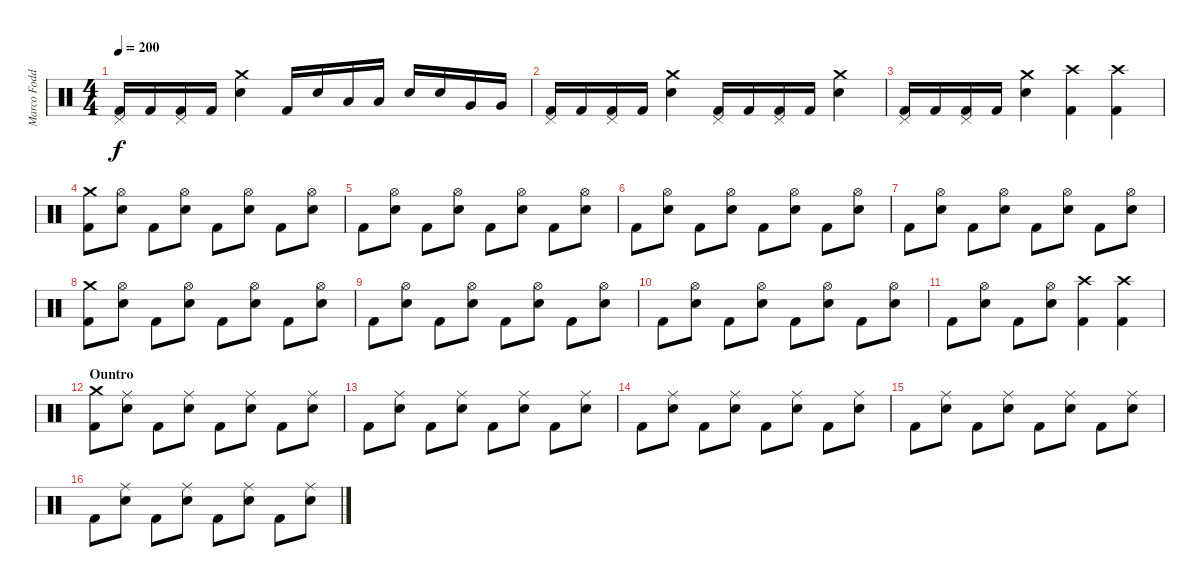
\track ("Marco Foddis " "Marco Fodd") {instrument percussion}
\staff {score}
\articulation defaults
\ts (4 4)
\tempo 200
\clef neutral
\ks c
("Pedal Hi-Hat (hit)" "Kick (hit) 2").16{dy f} "Kick (hit) 2".16 ("Pedal Hi-Hat (hit)" "Kick (hit) 2").16 "Kick (hit) 2".16 ("Crash medium (hit)" "Electric Snare (hit)").4 "Kick (hit) 2".16 "Electric Snare (hit)".16 "Low Tom (hit)".16 "Low Tom (hit)".16 "Electric Snare (hit)".16 "Electric Snare (hit)".16 "Very Low Tom (hit)".16 "Very Low Tom (hit)".16 |
("Pedal Hi-Hat (hit)" "Kick (hit) 2").16 "Kick (hit) 2".16 ("Pedal Hi-Hat (hit)" "Kick (hit) 2").16 "Kick (hit) 2".16 ("Crash medium (hit)" "Electric Snare (hit)").4 ("Pedal Hi-Hat (hit)" "Kick (hit) 2").16 "Kick (hit) 2".16 ("Pedal Hi-Hat (hit)" "Kick (hit) 2").16 "Kick (hit) 2".16 ("Crash medium (hit)" "Electric Snare (hit)").4 |
("Pedal Hi-Hat (hit)" "Kick (hit) 2").16 "Kick (hit) 2".16 ("Pedal Hi-Hat (hit)" "Kick (hit) 2").16 "Kick (hit) 2".16 ("Crash medium (hit)" "Electric Snare (hit)").4 ("Crash high (hit)" "Kick (hit) 2").4 ("Crash high (hit)" "Kick (hit) 2").4 |
("Crash medium (hit)" "Kick (hit) 2").8 ("Hi-Hat (open)" "Electric Snare (hit)").8 "Kick (hit) 2".8 ("Hi-Hat (open)" "Electric Snare (hit)").8 "Kick (hit) 2".8 ("Hi-Hat (open)" "Electric Snare (hit)").8 "Kick (hit) 2".8 ("Hi-Hat (open)" "Electric Snare (hit)").8 |
"Kick (hit) 2".8 ("Hi-Hat (open)" "Electric Snare (hit)").8 "Kick (hit) 2".8 ("Hi-Hat (open)" "Electric Snare (hit)").8 "Kick (hit) 2".8 ("Hi-Hat (open)" "Electric Snare (hit)").8 "Kick (hit) 2".8 ("Hi-Hat (open)" "Electric Snare (hit)").8 |
"Kick (hit) 2".8 ("Hi-Hat (open)" "Electric Snare (hit)").8 "Kick (hit) 2".8 ("Hi-Hat (open)" "Electric Snare (hit)").8 "Kick (hit) 2".8 ("Hi-Hat (open)" "Electric Snare (hit)").8 "Kick (hit) 2".8 ("Hi-Hat (open)" "Electric Snare (hit)").8 |
"Kick (hit) 2".8 ("Hi-Hat (open)" "Electric Snare (hit)").8 "Kick (hit) 2".8 ("Hi-Hat (open)" "Electric Snare (hit)").8 "Kick (hit) 2".8 ("Hi-Hat (open)" "Electric Snare (hit)").8 "Kick (hit) 2".8 ("Hi-Hat (open)" "Electric Snare (hit)").8 |
("Crash medium (hit)" "Kick (hit) 2").8 ("Hi-Hat (open)" "Electric Snare (hit)").8 "Kick (hit) 2".8 ("Hi-Hat (open)" "Electric Snare (hit)").8 "Kick (hit) 2".8 ("Hi-Hat (open)" "Electric Snare (hit)").8 "Kick (hit) 2".8 ("Hi-Hat (open)" "Electric Snare (hit)").8 |
"Kick (hit) 2".8 ("Hi-Hat (open)" "Electric Snare (hit)").8 "Kick (hit) 2".8 ("Hi-Hat (open)" "Electric Snare (hit)").8 "Kick (hit) 2".8 ("Hi-Hat (open)" "Electric Snare (hit)").8 "Kick (hit) 2".8 ("Hi-Hat (open)" "Electric Snare (hit)").8 |
"Kick (hit) 2".8 ("Hi-Hat (open)" "Electric Snare (hit)").8 "Kick (hit) 2".8 ("Hi-Hat (open)" "Electric Snare (hit)").8 "Kick (hit) 2".8 ("Hi-Hat (open)" "Electric Snare (hit)").8 "Kick (hit) 2".8 ("Hi-Hat (open)" "Electric Snare (hit)").8 |
"Kick (hit) 2".8 ("Hi-Hat (open)" "Electric Snare (hit)").8 "Kick (hit) 2".8 ("Hi-Hat (open)" "Electric Snare (hit)").8 ("Crash high (hit)" "Kick (hit) 2").4 ("Crash high (hit)" "Kick (hit) 2").4 |
\section ("" "Ountro")
("Crash medium (hit)" "Kick (hit) 2").8 ("Ride (middle)" "Electric Snare (hit)").8 "Kick (hit) 2".8 ("Ride (middle)" "Electric Snare (hit)").8 "Kick (hit) 2".8 ("Ride (middle)" "Electric Snare (hit)").8 "Kick (hit) 2".8 ("Ride (middle)" "Electric Snare (hit)").8 |
"Kick (hit) 2".8 ("Ride (middle)" "Electric Snare (hit)").8 "Kick (hit) 2".8 ("Ride (middle)" "Electric Snare (hit)").8 "Kick (hit) 2".8 ("Ride (middle)" "Electric Snare (hit)").8 "Kick (hit) 2".8 ("Ride (middle)" "Electric Snare (hit)").8 |
"Kick (hit) 2".8 ("Ride (middle)" "Electric Snare (hit)").8 "Kick (hit) 2".8 ("Ride (middle)" "Electric Snare (hit)").8 "Kick (hit) 2".8 ("Ride (middle)" "Electric Snare (hit)").8 "Kick (hit) 2".8 ("Ride (middle)" "Electric Snare (hit)").8 |
"Kick (hit) 2".8 ("Ride (middle)" "Electric Snare (hit)").8 "Kick (hit) 2".8 ("Ride (middle)" "Electric Snare (hit)").8 "Kick (hit) 2".8 ("Ride (middle)" "Electric Snare (hit)").8 "Kick (hit) 2".8 ("Ride (middle)" "Electric Snare (hit)").8 |
"Kick (hit) 2".8 ("Ride (middle)" "Electric Snare (hit)").8 "Kick (hit) 2".8 ("Ride (middle)" "Electric Snare (hit)").8 "Kick (hit) 2".8 ("Ride (middle)" "Electric Snare (hit)").8 "Kick (hit) 2".8 ("Ride (middle)" "Electric Snare (hit)").8
